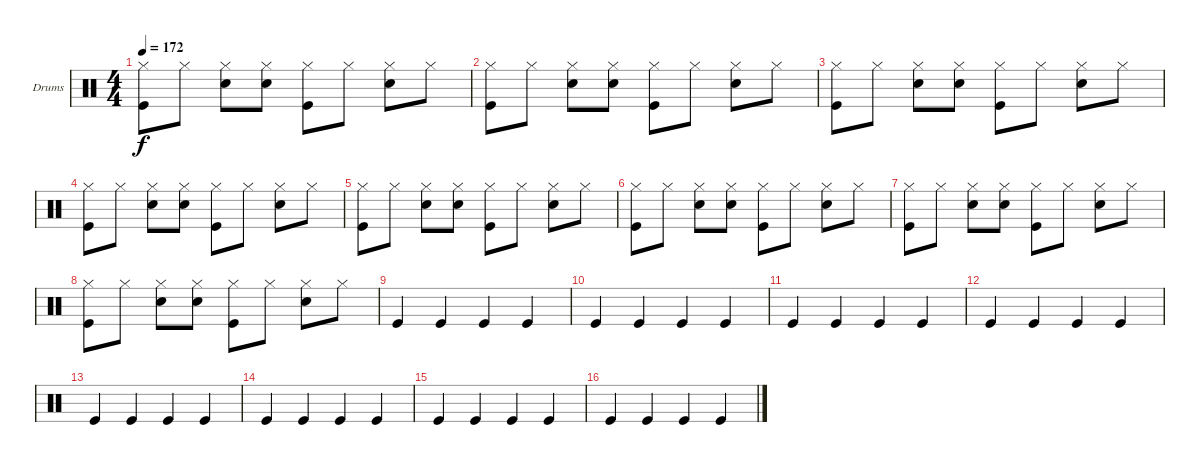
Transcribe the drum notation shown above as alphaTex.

\bracketExtendMode groupsimilarinstruments
\firstSystemTrackNameOrientation horizontal
\otherSystemsTrackNameOrientation horizontal
\track ("Drumkit" "Drums") {instrument percussion}
\staff {score}
\articulation defaults
\ts (4 4)
\tempo 172
\clef neutral
\ks c
("Hi-Hat (closed)" "Kick (hit)").8{dy f} "Hi-Hat (closed)".8 ("Snare (hit) 2" "Hi-Hat (closed)").8 ("Snare (hit) 2" "Hi-Hat (closed)").8 ("Hi-Hat (closed)" "Kick (hit)").8 "Hi-Hat (closed)".8 ("Snare (hit) 2" "Hi-Hat (closed)").8 "Hi-Hat (closed)".8 |
("Hi-Hat (closed)" "Kick (hit)").8 "Hi-Hat (closed)".8 ("Snare (hit) 2" "Hi-Hat (closed)").8 ("Snare (hit) 2" "Hi-Hat (closed)").8 ("Hi-Hat (closed)" "Kick (hit)").8 "Hi-Hat (closed)".8 ("Snare (hit) 2" "Hi-Hat (closed)").8 "Hi-Hat (closed)".8 |
("Hi-Hat (closed)" "Kick (hit)").8 "Hi-Hat (closed)".8 ("Snare (hit) 2" "Hi-Hat (closed)").8 ("Snare (hit) 2" "Hi-Hat (closed)").8 ("Hi-Hat (closed)" "Kick (hit)").8 "Hi-Hat (closed)".8 ("Snare (hit) 2" "Hi-Hat (closed)").8 "Hi-Hat (closed)".8 |
("Hi-Hat (closed)" "Kick (hit)").8 "Hi-Hat (closed)".8 ("Snare (hit) 2" "Hi-Hat (closed)").8 ("Snare (hit) 2" "Hi-Hat (closed)").8 ("Hi-Hat (closed)" "Kick (hit)").8 "Hi-Hat (closed)".8 ("Snare (hit) 2" "Hi-Hat (closed)").8 "Hi-Hat (closed)".8 |
("Hi-Hat (closed)" "Kick (hit)").8 "Hi-Hat (closed)".8 ("Snare (hit) 2" "Hi-Hat (closed)").8 ("Snare (hit) 2" "Hi-Hat (closed)").8 ("Hi-Hat (closed)" "Kick (hit)").8 "Hi-Hat (closed)".8 ("Snare (hit) 2" "Hi-Hat (closed)").8 "Hi-Hat (closed)".8 |
("Hi-Hat (closed)" "Kick (hit)").8 "Hi-Hat (closed)".8 ("Snare (hit) 2" "Hi-Hat (closed)").8 ("Snare (hit) 2" "Hi-Hat (closed)").8 ("Hi-Hat (closed)" "Kick (hit)").8 "Hi-Hat (closed)".8 ("Snare (hit) 2" "Hi-Hat (closed)").8 "Hi-Hat (closed)".8 |
("Hi-Hat (closed)" "Kick (hit)").8 "Hi-Hat (closed)".8 ("Snare (hit) 2" "Hi-Hat (closed)").8 ("Snare (hit) 2" "Hi-Hat (closed)").8 ("Hi-Hat (closed)" "Kick (hit)").8 "Hi-Hat (closed)".8 ("Snare (hit) 2" "Hi-Hat (closed)").8 "Hi-Hat (closed)".8 |
("Hi-Hat (closed)" "Kick (hit)").8 "Hi-Hat (closed)".8 ("Snare (hit) 2" "Hi-Hat (closed)").8 ("Snare (hit) 2" "Hi-Hat (closed)").8 ("Hi-Hat (closed)" "Kick (hit)").8 "Hi-Hat (closed)".8 ("Snare (hit) 2" "Hi-Hat (closed)").8 "Hi-Hat (closed)".8 |
"Kick (hit)".4 "Kick (hit)".4 "Kick (hit)".4 "Kick (hit)".4 |
"Kick (hit)".4 "Kick (hit)".4 "Kick (hit)".4 "Kick (hit)".4 |
"Kick (hit)".4 "Kick (hit)".4 "Kick (hit)".4 "Kick (hit)".4 |
"Kick (hit)".4 "Kick (hit)".4 "Kick (hit)".4 "Kick (hit)".4 |
"Kick (hit)".4 "Kick (hit)".4 "Kick (hit)".4 "Kick (hit)".4 |
"Kick (hit)".4 "Kick (hit)".4 "Kick (hit)".4 "Kick (hit)".4 |
"Kick (hit)".4 "Kick (hit)".4 "Kick (hit)".4 "Kick (hit)".4 |
"Kick (hit)".4 "Kick (hit)".4 "Kick (hit)".4 "Kick (hit)".4
